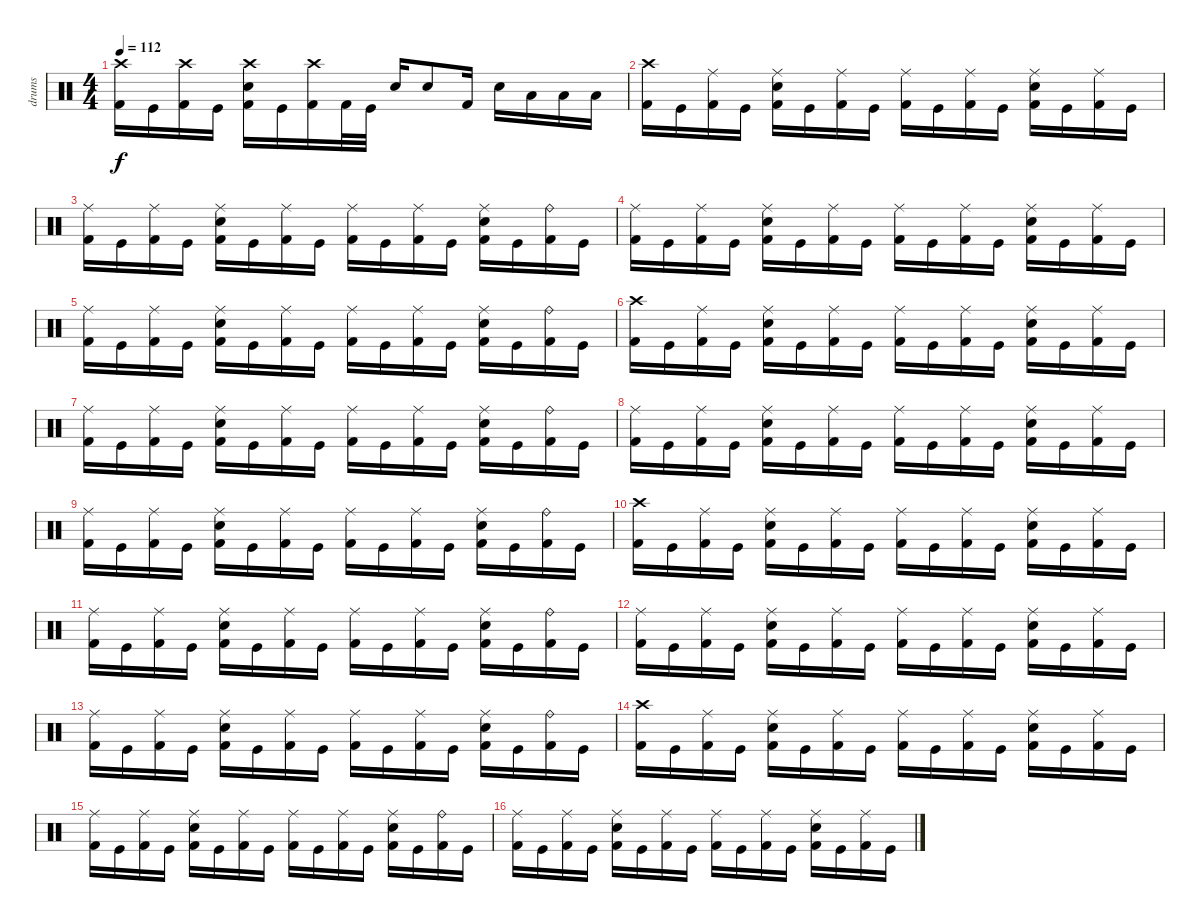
\track ("drums" "drums") {instrument percussion}
\staff {score}
\articulation defaults
\ts (4 4)
\tempo 112
\clef neutral
\ks c
("Crash high (hit)" "Kick (hit) 2").16{dy f} "Kick (hit)".16 ("Crash high (hit)" "Kick (hit) 2").16 "Kick (hit)".16 ("Crash high (hit)" "Electric Snare (hit)" "Kick (hit) 2").16 "Kick (hit)".16 ("Crash high (hit)" "Kick (hit) 2").16 "Kick (hit) 2".32 "Kick (hit)".32 "Electric Snare (hit)".16 "Electric Snare (hit)".8 "Kick (hit) 2".16 "Electric Snare (hit)".16 "Low Tom (hit)".16 "Low Tom (hit)".16 "Low Floor Tom (hit)".16 |
("Crash high (hit)" "Kick (hit) 2").16 "Kick (hit)".16 ("Ride (middle)" "Kick (hit) 2").16 "Kick (hit)".16 ("Ride (middle)" "Electric Snare (hit)" "Kick (hit) 2").16 "Kick (hit)".16 ("Ride (middle)" "Kick (hit) 2").16 "Kick (hit)".16 ("Ride (middle)" "Kick (hit) 2").16 "Kick (hit)".16 ("Ride (middle)" "Kick (hit) 2").16 "Kick (hit)".16 ("Ride (middle)" "Electric Snare (hit)" "Kick (hit) 2").16 "Kick (hit)".16 ("Ride (middle)" "Kick (hit) 2").16 "Kick (hit)".16 |
("Ride (middle)" "Kick (hit) 2").16 "Kick (hit)".16 ("Ride (middle)" "Kick (hit) 2").16 "Kick (hit)".16 ("Ride (middle)" "Electric Snare (hit)" "Kick (hit) 2").16 "Kick (hit)".16 ("Ride (middle)" "Kick (hit) 2").16 "Kick (hit)".16 ("Ride (middle)" "Kick (hit) 2").16 "Kick (hit)".16 ("Ride (middle)" "Kick (hit) 2").16 "Kick (hit)".16 ("Ride (middle)" "Electric Snare (hit)" "Kick (hit) 2").16 "Kick (hit)".16 ("Ride (bell)" "Kick (hit) 2").16 "Kick (hit)".16 |
("Ride (middle)" "Kick (hit) 2").16 "Kick (hit)".16 ("Ride (middle)" "Kick (hit) 2").16 "Kick (hit)".16 ("Ride (middle)" "Electric Snare (hit)" "Kick (hit) 2").16 "Kick (hit)".16 ("Ride (middle)" "Kick (hit) 2").16 "Kick (hit)".16 ("Ride (middle)" "Kick (hit) 2").16 "Kick (hit)".16 ("Ride (middle)" "Kick (hit) 2").16 "Kick (hit)".16 ("Ride (middle)" "Electric Snare (hit)" "Kick (hit) 2").16 "Kick (hit)".16 ("Ride (middle)" "Kick (hit) 2").16 "Kick (hit)".16 |
("Ride (middle)" "Kick (hit) 2").16 "Kick (hit)".16 ("Ride (middle)" "Kick (hit) 2").16 "Kick (hit)".16 ("Ride (middle)" "Electric Snare (hit)" "Kick (hit) 2").16 "Kick (hit)".16 ("Ride (middle)" "Kick (hit) 2").16 "Kick (hit)".16 ("Ride (middle)" "Kick (hit) 2").16 "Kick (hit)".16 ("Ride (middle)" "Kick (hit) 2").16 "Kick (hit)".16 ("Ride (middle)" "Electric Snare (hit)" "Kick (hit) 2").16 "Kick (hit)".16 ("Ride (bell)" "Kick (hit) 2").16 "Kick (hit)".16 |
("Crash high (hit)" "Kick (hit) 2").16 "Kick (hit)".16 ("Ride (middle)" "Kick (hit) 2").16 "Kick (hit)".16 ("Ride (middle)" "Electric Snare (hit)" "Kick (hit) 2").16 "Kick (hit)".16 ("Ride (middle)" "Kick (hit) 2").16 "Kick (hit)".16 ("Ride (middle)" "Kick (hit) 2").16 "Kick (hit)".16 ("Ride (middle)" "Kick (hit) 2").16 "Kick (hit)".16 ("Ride (middle)" "Electric Snare (hit)" "Kick (hit) 2").16 "Kick (hit)".16 ("Ride (middle)" "Kick (hit) 2").16 "Kick (hit)".16 |
("Ride (middle)" "Kick (hit) 2").16 "Kick (hit)".16 ("Ride (middle)" "Kick (hit) 2").16 "Kick (hit)".16 ("Ride (middle)" "Electric Snare (hit)" "Kick (hit) 2").16 "Kick (hit)".16 ("Ride (middle)" "Kick (hit) 2").16 "Kick (hit)".16 ("Ride (middle)" "Kick (hit) 2").16 "Kick (hit)".16 ("Ride (middle)" "Kick (hit) 2").16 "Kick (hit)".16 ("Ride (middle)" "Electric Snare (hit)" "Kick (hit) 2").16 "Kick (hit)".16 ("Ride (bell)" "Kick (hit) 2").16 "Kick (hit)".16 |
("Ride (middle)" "Kick (hit) 2").16 "Kick (hit)".16 ("Ride (middle)" "Kick (hit) 2").16 "Kick (hit)".16 ("Ride (middle)" "Electric Snare (hit)" "Kick (hit) 2").16 "Kick (hit)".16 ("Ride (middle)" "Kick (hit) 2").16 "Kick (hit)".16 ("Ride (middle)" "Kick (hit) 2").16 "Kick (hit)".16 ("Ride (middle)" "Kick (hit) 2").16 "Kick (hit)".16 ("Ride (middle)" "Electric Snare (hit)" "Kick (hit) 2").16 "Kick (hit)".16 ("Ride (middle)" "Kick (hit) 2").16 "Kick (hit)".16 |
("Ride (middle)" "Kick (hit) 2").16 "Kick (hit)".16 ("Ride (middle)" "Kick (hit) 2").16 "Kick (hit)".16 ("Ride (middle)" "Electric Snare (hit)" "Kick (hit) 2").16 "Kick (hit)".16 ("Ride (middle)" "Kick (hit) 2").16 "Kick (hit)".16 ("Ride (middle)" "Kick (hit) 2").16 "Kick (hit)".16 ("Ride (middle)" "Kick (hit) 2").16 "Kick (hit)".16 ("Ride (middle)" "Electric Snare (hit)" "Kick (hit) 2").16 "Kick (hit)".16 ("Ride (bell)" "Kick (hit) 2").16 "Kick (hit)".16 |
("Crash high (hit)" "Kick (hit) 2").16 "Kick (hit)".16 ("Ride (middle)" "Kick (hit) 2").16 "Kick (hit)".16 ("Ride (middle)" "Electric Snare (hit)" "Kick (hit) 2").16 "Kick (hit)".16 ("Ride (middle)" "Kick (hit) 2").16 "Kick (hit)".16 ("Ride (middle)" "Kick (hit) 2").16 "Kick (hit)".16 ("Ride (middle)" "Kick (hit) 2").16 "Kick (hit)".16 ("Ride (middle)" "Electric Snare (hit)" "Kick (hit) 2").16 "Kick (hit)".16 ("Ride (middle)" "Kick (hit) 2").16 "Kick (hit)".16 |
("Ride (middle)" "Kick (hit) 2").16 "Kick (hit)".16 ("Ride (middle)" "Kick (hit) 2").16 "Kick (hit)".16 ("Ride (middle)" "Electric Snare (hit)" "Kick (hit) 2").16 "Kick (hit)".16 ("Ride (middle)" "Kick (hit) 2").16 "Kick (hit)".16 ("Ride (middle)" "Kick (hit) 2").16 "Kick (hit)".16 ("Ride (middle)" "Kick (hit) 2").16 "Kick (hit)".16 ("Ride (middle)" "Electric Snare (hit)" "Kick (hit) 2").16 "Kick (hit)".16 ("Ride (bell)" "Kick (hit) 2").16 "Kick (hit)".16 |
("Ride (middle)" "Kick (hit) 2").16 "Kick (hit)".16 ("Ride (middle)" "Kick (hit) 2").16 "Kick (hit)".16 ("Ride (middle)" "Electric Snare (hit)" "Kick (hit) 2").16 "Kick (hit)".16 ("Ride (middle)" "Kick (hit) 2").16 "Kick (hit)".16 ("Ride (middle)" "Kick (hit) 2").16 "Kick (hit)".16 ("Ride (middle)" "Kick (hit) 2").16 "Kick (hit)".16 ("Ride (middle)" "Electric Snare (hit)" "Kick (hit) 2").16 "Kick (hit)".16 ("Ride (middle)" "Kick (hit) 2").16 "Kick (hit)".16 |
("Ride (middle)" "Kick (hit) 2").16 "Kick (hit)".16 ("Ride (middle)" "Kick (hit) 2").16 "Kick (hit)".16 ("Ride (middle)" "Electric Snare (hit)" "Kick (hit) 2").16 "Kick (hit)".16 ("Ride (middle)" "Kick (hit) 2").16 "Kick (hit)".16 ("Ride (middle)" "Kick (hit) 2").16 "Kick (hit)".16 ("Ride (middle)" "Kick (hit) 2").16 "Kick (hit)".16 ("Ride (middle)" "Electric Snare (hit)" "Kick (hit) 2").16 "Kick (hit)".16 ("Ride (bell)" "Kick (hit) 2").16 "Kick (hit)".16 |
("Crash high (hit)" "Kick (hit) 2").16 "Kick (hit)".16 ("Ride (middle)" "Kick (hit) 2").16 "Kick (hit)".16 ("Ride (middle)" "Electric Snare (hit)" "Kick (hit) 2").16 "Kick (hit)".16 ("Ride (middle)" "Kick (hit) 2").16 "Kick (hit)".16 ("Ride (middle)" "Kick (hit) 2").16 "Kick (hit)".16 ("Ride (middle)" "Kick (hit) 2").16 "Kick (hit)".16 ("Ride (middle)" "Electric Snare (hit)" "Kick (hit) 2").16 "Kick (hit)".16 ("Ride (middle)" "Kick (hit) 2").16 "Kick (hit)".16 |
("Ride (middle)" "Kick (hit) 2").16 "Kick (hit)".16 ("Ride (middle)" "Kick (hit) 2").16 "Kick (hit)".16 ("Ride (middle)" "Electric Snare (hit)" "Kick (hit) 2").16 "Kick (hit)".16 ("Ride (middle)" "Kick (hit) 2").16 "Kick (hit)".16 ("Ride (middle)" "Kick (hit) 2").16 "Kick (hit)".16 ("Ride (middle)" "Kick (hit) 2").16 "Kick (hit)".16 ("Ride (middle)" "Electric Snare (hit)" "Kick (hit) 2").16 "Kick (hit)".16 ("Ride (bell)" "Kick (hit) 2").16 "Kick (hit)".16 |
("Ride (middle)" "Kick (hit) 2").16 "Kick (hit)".16 ("Ride (middle)" "Kick (hit) 2").16 "Kick (hit)".16 ("Ride (middle)" "Electric Snare (hit)" "Kick (hit) 2").16 "Kick (hit)".16 ("Ride (middle)" "Kick (hit) 2").16 "Kick (hit)".16 ("Ride (middle)" "Kick (hit) 2").16 "Kick (hit)".16 ("Ride (middle)" "Kick (hit) 2").16 "Kick (hit)".16 ("Ride (middle)" "Electric Snare (hit)" "Kick (hit) 2").16 "Kick (hit)".16 ("Ride (middle)" "Kick (hit) 2").16 "Kick (hit)".16
